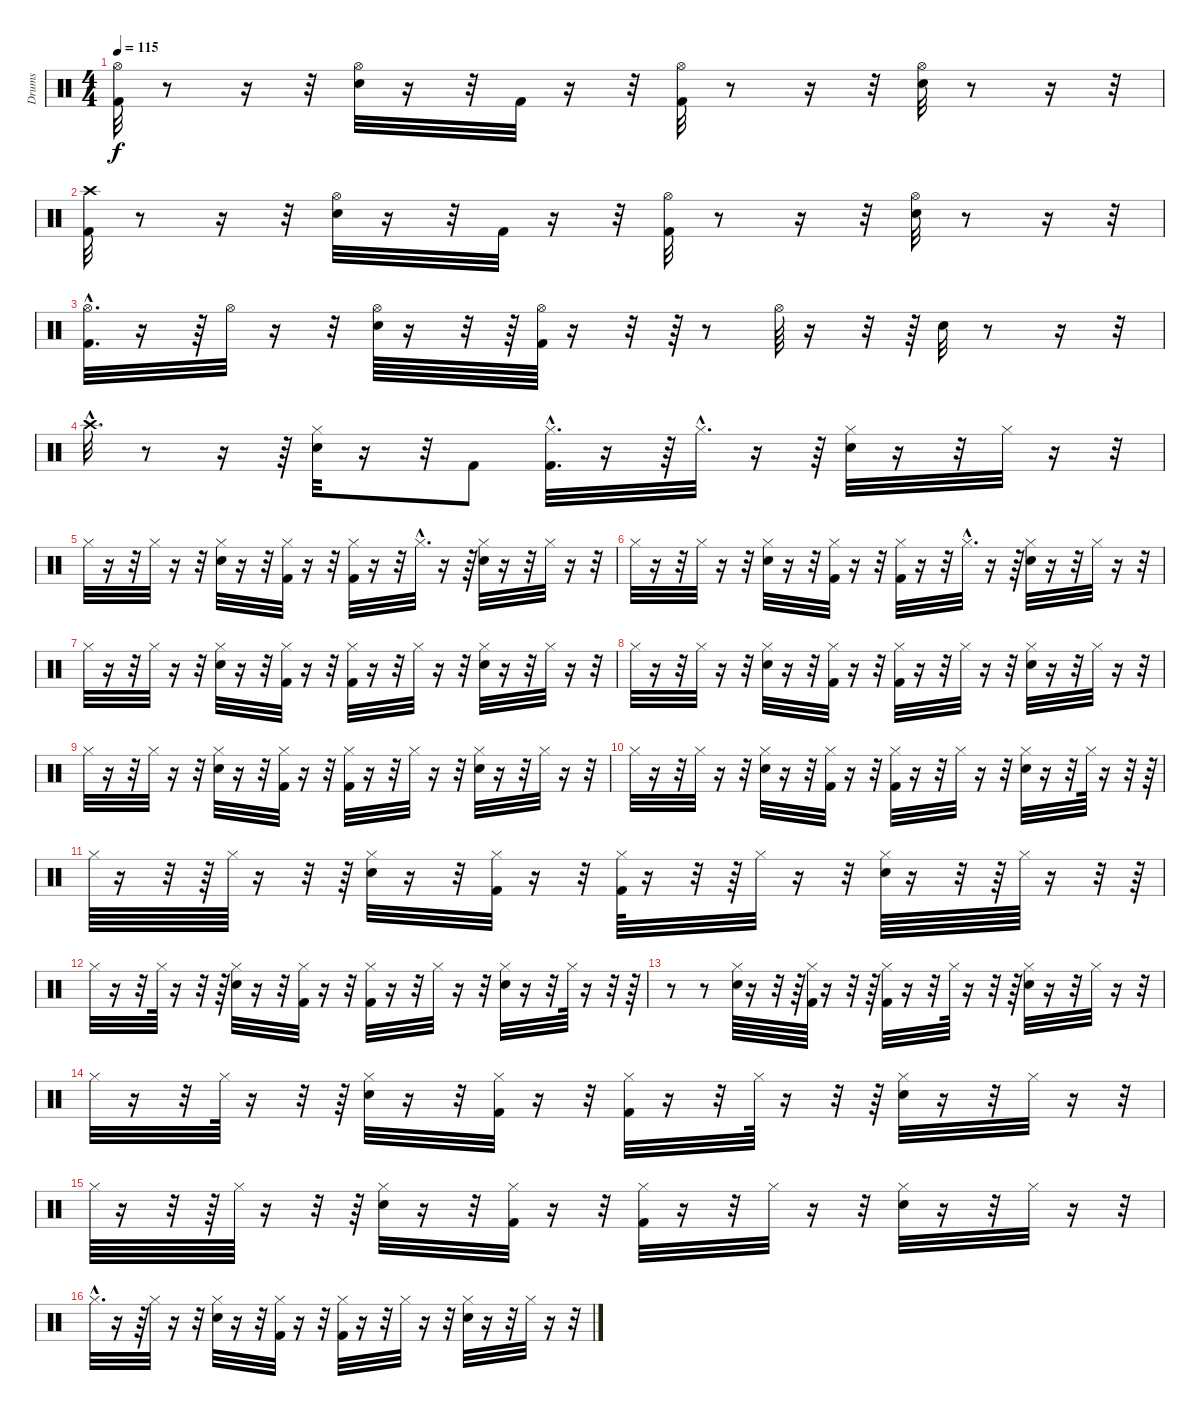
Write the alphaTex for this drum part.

\track ("Drums               " "Drums     ") {instrument percussion}
\staff {score}
\articulation defaults
\ts (4 4)
\tempo 115
\clef neutral
\ks c
("Hi-Hat (open)" "Kick (hit) 2").32{dy f} r.8 r.16 r.32 ("Hi-Hat (open)" "Snare (hit) 2").32 r.16 r.32 "Kick (hit) 2".32 r.16 r.32 ("Hi-Hat (open)" "Kick (hit) 2").32 r.8 r.16 r.32 ("Hi-Hat (open)" "Snare (hit) 2").32 r.8 r.16 r.32 |
("Crash high (hit)" "Kick (hit) 2").32 r.8 r.16 r.32 ("Hi-Hat (open)" "Snare (hit) 2").32 r.16 r.32 "Kick (hit) 2".32 r.16 r.32 ("Hi-Hat (open)" "Kick (hit) 2").32 r.8 r.16 r.32 ("Hi-Hat (open)" "Snare (hit) 2").32 r.8 r.16 r.32 |
("Hi-Hat (open)"{hac} "Kick (hit) 2"{hac}).32{d} r.16 r.64 "Hi-Hat (open)".32 r.16 r.32 ("Hi-Hat (open)" "Snare (hit) 2").64 r.16 r.32 r.64 ("Hi-Hat (open)" "Kick (hit) 2").64 r.16 r.32 r.64 r.8 "Hi-Hat (open)".64 r.16 r.32 r.64 "Snare (hit) 2".32 r.8 r.16 r.32 |
"Crash high (hit)"{hac}.32{d} r.8 r.16 r.64 ("Hi-Hat (closed)" "Snare (hit) 2").32 r.16 r.32 "Kick (hit) 2".8 ("Hi-Hat (closed)"{hac} "Kick (hit) 2"{hac}).32{d} r.16 r.64 "Hi-Hat (closed)"{hac}.32{d} r.16 r.64 ("Hi-Hat (closed)" "Snare (hit) 2").32 r.16 r.32 "Hi-Hat (closed)".32 r.16 r.32 |
"Hi-Hat (closed)".32 r.16 r.32 "Hi-Hat (closed)".32 r.16 r.32 ("Hi-Hat (closed)" "Snare (hit) 2").32 r.16 r.32 ("Hi-Hat (closed)" "Kick (hit) 2").32 r.16 r.32 ("Hi-Hat (closed)" "Kick (hit) 2").32 r.16 r.32 "Hi-Hat (closed)"{hac}.32{d} r.16 r.64 ("Hi-Hat (closed)" "Snare (hit) 2").32 r.16 r.32 "Hi-Hat (closed)".32 r.16 r.32 |
"Hi-Hat (closed)".32 r.16 r.32 "Hi-Hat (closed)".32 r.16 r.32 ("Hi-Hat (closed)" "Snare (hit) 2").32 r.16 r.32 ("Hi-Hat (closed)" "Kick (hit) 2").32 r.16 r.32 ("Hi-Hat (closed)" "Kick (hit) 2").32 r.16 r.32 "Hi-Hat (closed)"{hac}.32{d} r.16 r.64 ("Hi-Hat (closed)" "Snare (hit) 2").32 r.16 r.32 "Hi-Hat (closed)".32 r.16 r.32 |
"Hi-Hat (closed)".32 r.16 r.32 "Hi-Hat (closed)".32 r.16 r.32 ("Hi-Hat (closed)" "Snare (hit) 2").32 r.16 r.32 ("Hi-Hat (closed)" "Kick (hit) 2").32 r.16 r.32 ("Hi-Hat (closed)" "Kick (hit) 2").32 r.16 r.32 "Hi-Hat (closed)".32 r.16 r.32 ("Hi-Hat (closed)" "Snare (hit) 2").32 r.16 r.32 "Hi-Hat (closed)".32 r.16 r.32 |
"Hi-Hat (closed)".32 r.16 r.32 "Hi-Hat (closed)".32 r.16 r.32 ("Hi-Hat (closed)" "Snare (hit) 2").32 r.16 r.32 ("Hi-Hat (closed)" "Kick (hit) 2").32 r.16 r.32 ("Hi-Hat (closed)" "Kick (hit) 2").32 r.16 r.32 "Hi-Hat (closed)".32 r.16 r.32 ("Hi-Hat (closed)" "Snare (hit) 2").32 r.16 r.32 "Hi-Hat (closed)".32 r.16 r.32 |
"Hi-Hat (closed)".32 r.16 r.32 "Hi-Hat (closed)".32 r.16 r.32 ("Hi-Hat (closed)" "Snare (hit) 2").32 r.16 r.32 ("Hi-Hat (closed)" "Kick (hit) 2").32 r.16 r.32 ("Hi-Hat (closed)" "Kick (hit) 2").32 r.16 r.32 "Hi-Hat (closed)".32 r.16 r.32 ("Hi-Hat (closed)" "Snare (hit) 2").32 r.16 r.32 "Hi-Hat (closed)".32 r.16 r.32 |
"Hi-Hat (closed)".32 r.16 r.32 "Hi-Hat (closed)".32 r.16 r.32 ("Hi-Hat (closed)" "Snare (hit) 2").32 r.16 r.32 ("Hi-Hat (closed)" "Kick (hit) 2").32 r.16 r.32 ("Hi-Hat (closed)" "Kick (hit) 2").32 r.16 r.32 "Hi-Hat (closed)".32 r.16 r.32 ("Hi-Hat (closed)" "Snare (hit) 2").32 r.16 r.32 "Hi-Hat (closed)".64 r.16 r.32 r.64 |
"Hi-Hat (closed)".64 r.16 r.32 r.64 "Hi-Hat (closed)".64 r.16 r.32 r.64 ("Hi-Hat (closed)" "Snare (hit) 2").32 r.16 r.32 ("Hi-Hat (closed)" "Kick (hit) 2").32 r.16 r.32 ("Hi-Hat (closed)" "Kick (hit) 2").64 r.16 r.32 r.64 "Hi-Hat (closed)".32 r.16 r.32 ("Hi-Hat (closed)" "Snare (hit) 2").64 r.16 r.32 r.64 "Hi-Hat (closed)".64 r.16 r.32 r.64 |
"Hi-Hat (closed)".32 r.16 r.32 "Hi-Hat (closed)".64 r.16 r.32 r.64 ("Hi-Hat (closed)" "Snare (hit) 2").32 r.16 r.32 ("Hi-Hat (closed)" "Kick (hit) 2").32 r.16 r.32 ("Hi-Hat (closed)" "Kick (hit) 2").32 r.16 r.32 "Hi-Hat (closed)".32 r.16 r.32 ("Hi-Hat (closed)" "Snare (hit) 2").32 r.16 r.32 "Hi-Hat (closed)".64 r.16 r.32 r.64 |
r.8 r.8 ("Hi-Hat (closed)" "Snare (hit) 2").64 r.16 r.32 r.64 ("Hi-Hat (closed)" "Kick (hit) 2").64 r.16 r.32 r.64 ("Hi-Hat (closed)" "Kick (hit) 2").32 r.16 r.32 "Hi-Hat (closed)".64 r.16 r.32 r.64 ("Hi-Hat (closed)" "Snare (hit) 2").32 r.16 r.32 "Hi-Hat (closed)".32 r.16 r.32 |
"Hi-Hat (closed)".32 r.16 r.32 "Hi-Hat (closed)".64 r.16 r.32 r.64 ("Hi-Hat (closed)" "Snare (hit) 2").32 r.16 r.32 ("Hi-Hat (closed)" "Kick (hit) 2").32 r.16 r.32 ("Hi-Hat (closed)" "Kick (hit) 2").32 r.16 r.32 "Hi-Hat (closed)".64 r.16 r.32 r.64 ("Hi-Hat (closed)" "Snare (hit) 2").32 r.16 r.32 "Hi-Hat (closed)".32 r.16 r.32 |
"Hi-Hat (closed)".64 r.16 r.32 r.64 "Hi-Hat (closed)".64 r.16 r.32 r.64 ("Hi-Hat (closed)" "Snare (hit) 2").32 r.16 r.32 ("Hi-Hat (closed)" "Kick (hit) 2").32 r.16 r.32 ("Hi-Hat (closed)" "Kick (hit) 2").32 r.16 r.32 "Hi-Hat (closed)".32 r.16 r.32 ("Hi-Hat (closed)" "Snare (hit) 2").32 r.16 r.32 "Hi-Hat (closed)".32 r.16 r.32 |
"Hi-Hat (closed)"{hac}.32{d} r.16 r.64 "Hi-Hat (closed)".32 r.16 r.32 ("Hi-Hat (closed)" "Snare (hit) 2").32 r.16 r.32 ("Hi-Hat (closed)" "Kick (hit) 2").32 r.16 r.32 ("Hi-Hat (closed)" "Kick (hit) 2").32 r.16 r.32 "Hi-Hat (closed)".32 r.16 r.32 ("Hi-Hat (closed)" "Snare (hit) 2").32 r.16 r.32 "Hi-Hat (closed)".32 r.16 r.32
